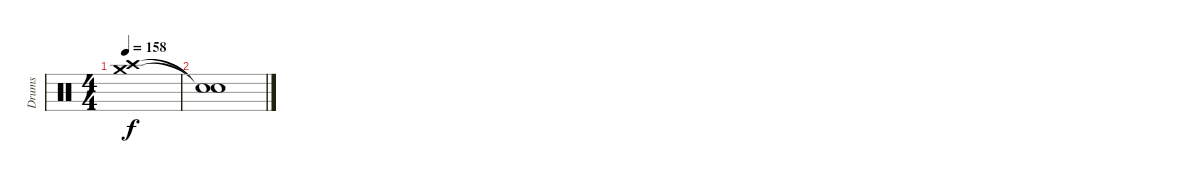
\track ("Drums" "Drums") {instrument percussion}
\staff {score}
\articulation defaults
\ts (4 4)
\tempo 158
\clef neutral
\ks c
("Crash high (hit)" "Crash medium (hit)").1{dy f} |
("Snare (hit)"{t} "Snare (hit)"{t}).1
